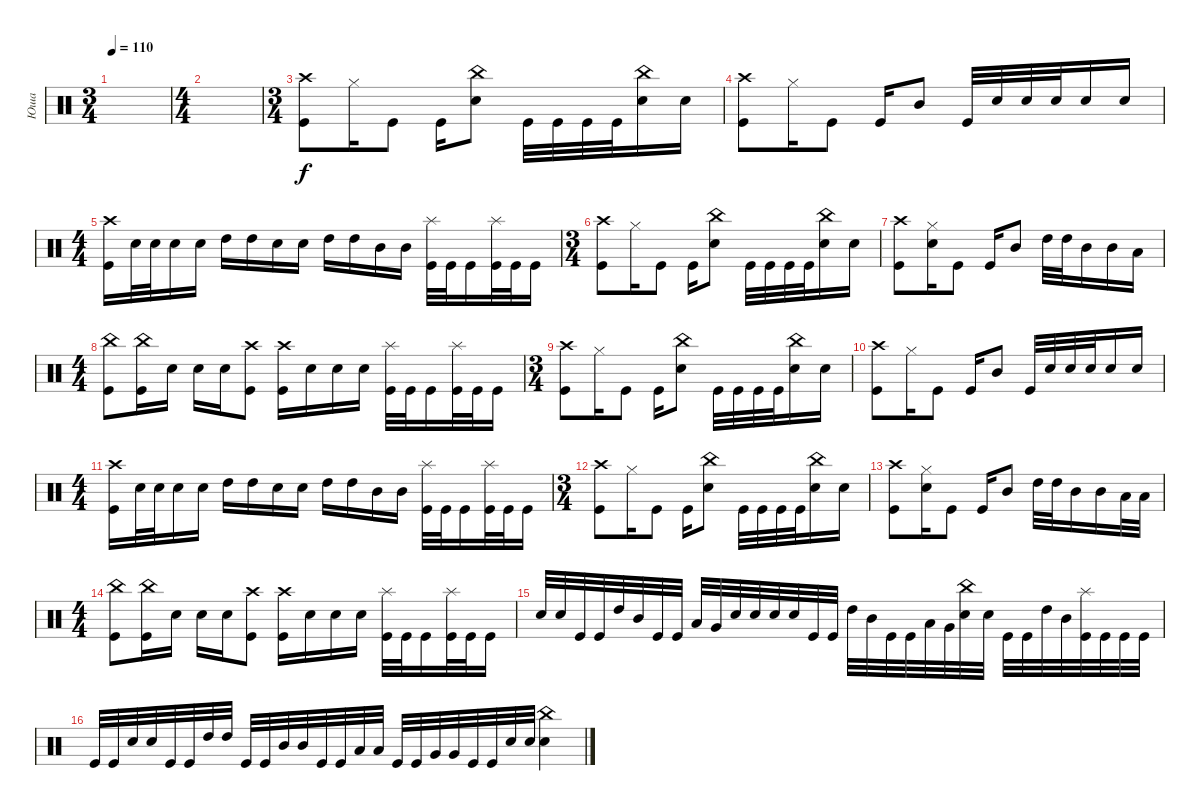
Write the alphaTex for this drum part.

\track ("Юша" "Юша") {instrument percussion}
\staff {score}
\articulation defaults
\ts (3 4)
\tempo 110
\clef neutral
\ks c
|
\ts (4 4)
|
\ts (3 4)
("Kick (hit)" "Crash high (hit)").8 "Hi-Hat (closed)".16 "Kick (hit)".8 "Kick (hit)".16 ("Snare (hit) 2" "China (hit)").8 "Kick (hit)".32 "Kick (hit)".32 "Kick (hit)".32 "Kick (hit)".32 ("Snare (hit) 2" "China (hit)").16 "Snare (hit) 2".16 |
("Kick (hit)" "Crash high (hit)").8 "Hi-Hat (closed)".16 "Kick (hit)".8 "Kick (hit)".16 "Mid Tom (hit)".8 "Kick (hit)".32 "Snare (hit) 2".32 "Snare (hit) 2".32 "Snare (hit) 2".32 "Snare (hit) 2".16 "Snare (hit) 2".16 |
\ts (4 4)
("Kick (hit)" "Crash high (hit)").16 "Snare (hit) 2".32 "Snare (hit) 2".32 "Snare (hit) 2".16 "Snare (hit) 2".16 "High Tom (hit)".16 "High Tom (hit)".16 "Snare (hit) 2".16 "Snare (hit) 2".16 "High Tom (hit)".16 "High Tom (hit)".16 "Mid Tom (hit)".16 "Mid Tom (hit)".16 ("Splash (hit)" "Kick (hit)").32 "Kick (hit)".32 "Kick (hit)".16 ("Splash (hit)" "Kick (hit)").32 "Kick (hit)".32 "Kick (hit)".16 |
\ts (3 4)
("Kick (hit)" "Crash high (hit)").8 "Hi-Hat (closed)".16 "Kick (hit)".8 "Kick (hit)".16 ("Snare (hit) 2" "China (hit)").8 "Kick (hit)".32 "Kick (hit)".32 "Kick (hit)".32 "Kick (hit)".32 ("Snare (hit) 2" "China (hit)").16 "Snare (hit) 2".16 |
("Kick (hit)" "Crash high (hit)").8 ("Snare (hit) 2" "Hi-Hat (closed)").16 "Kick (hit)".8 "Kick (hit)".16 "Mid Tom (hit)".8 "High Tom (hit)".32 "High Tom (hit)".32 "Mid Tom (hit)".16 "Mid Tom (hit)".16 "Low Tom (hit)".16 |
\ts (4 4)
("China (hit)" "Kick (hit)").8 ("Kick (hit)" "China (hit)").16 "Snare (hit) 2".16 "Snare (hit) 2".16 "Snare (hit) 2".16 ("Crash high (hit)" "Kick (hit)").8 ("Crash high (hit)" "Kick (hit)").16 "Snare (hit) 2".16 "Snare (hit) 2".16 "Snare (hit) 2".16 ("Splash (hit)" "Kick (hit)").32 "Kick (hit)".32 "Kick (hit)".16 ("Splash (hit)" "Kick (hit)").32 "Kick (hit)".32 "Kick (hit)".16 |
\ts (3 4)
("Kick (hit)" "Crash high (hit)").8 "Hi-Hat (closed)".16 "Kick (hit)".8 "Kick (hit)".16 ("Snare (hit) 2" "China (hit)").8 "Kick (hit)".32 "Kick (hit)".32 "Kick (hit)".32 "Kick (hit)".32 ("Snare (hit) 2" "China (hit)").16 "Snare (hit) 2".16 |
("Kick (hit)" "Crash high (hit)").8 "Hi-Hat (closed)".16 "Kick (hit)".8 "Kick (hit)".16 "Mid Tom (hit)".8 "Kick (hit)".32 "Snare (hit) 2".32 "Snare (hit) 2".32 "Snare (hit) 2".32 "Snare (hit) 2".16 "Snare (hit) 2".16 |
\ts (4 4)
("Kick (hit)" "Crash high (hit)").16 "Snare (hit) 2".32 "Snare (hit) 2".32 "Snare (hit) 2".16 "Snare (hit) 2".16 "High Tom (hit)".16 "High Tom (hit)".16 "Snare (hit) 2".16 "Snare (hit) 2".16 "High Tom (hit)".16 "High Tom (hit)".16 "Mid Tom (hit)".16 "Mid Tom (hit)".16 ("Splash (hit)" "Kick (hit)").32 "Kick (hit)".32 "Kick (hit)".16 ("Splash (hit)" "Kick (hit)").32 "Kick (hit)".32 "Kick (hit)".16 |
\ts (3 4)
("Kick (hit)" "Crash high (hit)").8 "Hi-Hat (closed)".16 "Kick (hit)".8 "Kick (hit)".16 ("Snare (hit) 2" "China (hit)").8 "Kick (hit)".32 "Kick (hit)".32 "Kick (hit)".32 "Kick (hit)".32 ("Snare (hit) 2" "China (hit)").16 "Snare (hit) 2".16 |
("Kick (hit)" "Crash high (hit)").8 ("Snare (hit) 2" "Hi-Hat (closed)").16 "Kick (hit)".8 "Kick (hit)".16 "Mid Tom (hit)".8 "High Tom (hit)".32 "High Tom (hit)".32 "Mid Tom (hit)".16 "Mid Tom (hit)".16 "Low Tom (hit)".32 "Low Tom (hit)".32 |
\ts (4 4)
("China (hit)" "Kick (hit)").8 ("Kick (hit)" "China (hit)").16 "Snare (hit) 2".16 "Snare (hit) 2".16 "Snare (hit) 2".16 ("Crash high (hit)" "Kick (hit)").8 ("Crash high (hit)" "Kick (hit)").16 "Snare (hit) 2".16 "Snare (hit) 2".16 "Snare (hit) 2".16 ("Splash (hit)" "Kick (hit)").32 "Kick (hit)".32 "Kick (hit)".16 ("Splash (hit)" "Kick (hit)").32 "Kick (hit)".32 "Kick (hit)".16 |
"Snare (hit) 2".32 "Snare (hit) 2".32 "Kick (hit)".32 "Kick (hit)".32 "High Tom (hit)".32 "Mid Tom (hit)".32 "Kick (hit)".32 "Kick (hit)".32 "Low Tom (hit)".32 "Very Low Tom (hit)".32 "Snare (hit) 2".32 "Snare (hit) 2".32 "Snare (hit) 2".32 "Snare (hit) 2".32 "Kick (hit)".32 "Kick (hit)".32 "High Tom (hit)".32 "Mid Tom (hit)".32 "Kick (hit)".32 "Kick (hit)".32 "Low Tom (hit)".32 "Very Low Tom (hit)".32 ("Snare (hit) 2" "China (hit)").32 "Snare (hit) 2".32 "Kick (hit)".32 "Kick (hit)".32 "High Tom (hit)".32 "Mid Tom (hit)".32 ("Kick (hit)" "Splash (hit)").32 "Kick (hit)".32 "Kick (hit)".32 "Kick (hit)".32 |
"Kick (hit)".32 "Kick (hit)".32 "Snare (hit) 2".32 "Snare (hit) 2".32 "Kick (hit)".32 "Kick (hit)".32 "High Tom (hit)".32 "High Tom (hit)".32 "Kick (hit)".32 "Kick (hit)".32 "Mid Tom (hit)".32 "Mid Tom (hit)".32 "Kick (hit)".32 "Kick (hit)".32 "Low Tom (hit)".32 "Low Tom (hit)".32 "Kick (hit)".32 "Kick (hit)".32 "Very Low Tom (hit)".32 "Very Low Tom (hit)".32 "Kick (hit)".32 "Kick (hit)".32 "Snare (hit) 2".32 "Snare (hit) 2".32 ("Snare (hit) 2" "China (hit)").4
